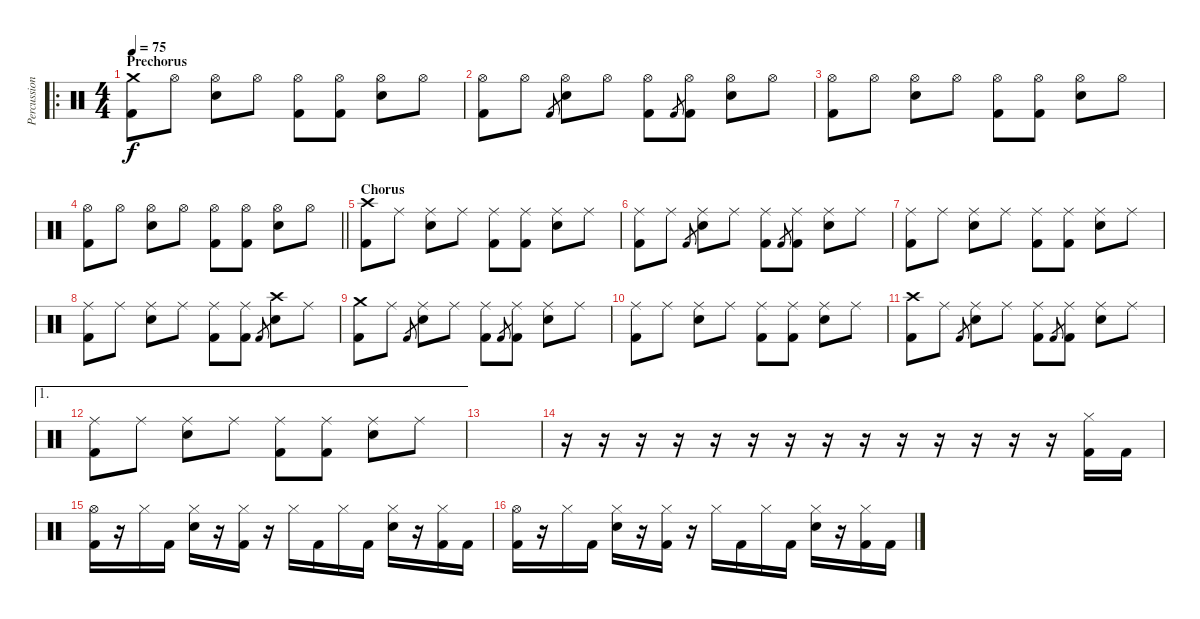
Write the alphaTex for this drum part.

\track ("Percussions" "Percussion") {instrument percussion}
\staff {score}
\articulation defaults
\ro
\ts (4 4)
\section ("" "Prechorus")
\tempo 75
\clef neutral
\ks c
("Crash medium (hit)" "Kick (hit) 2").8{dy f} "Hi-Hat (open)".8 ("Hi-Hat (open)" "Snare (hit) 2").8 "Hi-Hat (open)".8 ("Hi-Hat (open)" "Kick (hit) 2").8 ("Hi-Hat (open)" "Kick (hit) 2").8 ("Hi-Hat (open)" "Snare (hit) 2").8 "Hi-Hat (open)".8 |
("Hi-Hat (open)" "Kick (hit) 2").8 "Hi-Hat (open)".8 "Kick (hit) 2".8{gr} ("Hi-Hat (open)" "Snare (hit) 2").8 "Hi-Hat (open)".8 ("Hi-Hat (open)" "Kick (hit) 2").8 "Kick (hit) 2".8{gr} ("Hi-Hat (open)" "Kick (hit) 2").8 ("Hi-Hat (open)" "Snare (hit) 2").8 "Hi-Hat (open)".8 |
("Hi-Hat (open)" "Kick (hit) 2").8 "Hi-Hat (open)".8 ("Hi-Hat (open)" "Snare (hit) 2").8 "Hi-Hat (open)".8 ("Hi-Hat (open)" "Kick (hit) 2").8 ("Hi-Hat (open)" "Kick (hit) 2").8 ("Hi-Hat (open)" "Snare (hit) 2").8 "Hi-Hat (open)".8 |
\barLineRight lightlight
("Hi-Hat (open)" "Kick (hit) 2").8 "Hi-Hat (open)".8 ("Hi-Hat (open)" "Snare (hit) 2").8 "Hi-Hat (open)".8 ("Hi-Hat (open)" "Kick (hit) 2").8 ("Hi-Hat (open)" "Kick (hit) 2").8 ("Hi-Hat (open)" "Snare (hit) 2").8 "Hi-Hat (open)".8 |
\section ("" "Chorus")
("Crash high (hit)" "Kick (hit) 2").8 "Ride (middle)".8 ("Ride (middle)" "Snare (hit) 2").8 "Ride (middle)".8 ("Ride (middle)" "Kick (hit) 2").8 ("Ride (middle)" "Kick (hit) 2").8 ("Ride (middle)" "Snare (hit) 2").8 "Ride (middle)".8 |
("Ride (middle)" "Kick (hit) 2").8 "Ride (middle)".8 "Kick (hit) 2".8{gr} ("Ride (middle)" "Snare (hit) 2").8 "Ride (middle)".8 ("Ride (middle)" "Kick (hit) 2").8 "Kick (hit) 2".8{gr} ("Ride (middle)" "Kick (hit) 2").8 ("Ride (middle)" "Snare (hit) 2").8 "Ride (middle)".8 |
("Ride (middle)" "Kick (hit) 2").8 "Ride (middle)".8 ("Ride (middle)" "Snare (hit) 2").8 "Ride (middle)".8 ("Ride (middle)" "Kick (hit) 2").8 ("Ride (middle)" "Kick (hit) 2").8 ("Ride (middle)" "Snare (hit) 2").8 "Ride (middle)".8 |
("Ride (middle)" "Kick (hit) 2").8 "Ride (middle)".8 ("Ride (middle)" "Snare (hit) 2").8 "Ride (middle)".8 ("Ride (middle)" "Kick (hit) 2").8 ("Ride (middle)" "Kick (hit) 2").8 "Kick (hit) 2".8{gr} ("Crash high (hit)" "Snare (hit) 2").8 "Ride (middle)".8 |
("Crash medium (hit)" "Kick (hit) 2").8 "Ride (middle)".8 "Kick (hit) 2".8{gr} ("Ride (middle)" "Snare (hit) 2").8 "Ride (middle)".8 ("Ride (middle)" "Kick (hit) 2").8 "Kick (hit) 2".8{gr} ("Ride (middle)" "Kick (hit) 2").8 ("Ride (middle)" "Snare (hit) 2").8 "Ride (middle)".8 |
("Ride (middle)" "Kick (hit) 2").8 "Ride (middle)".8 ("Ride (middle)" "Snare (hit) 2").8 "Ride (middle)".8 ("Ride (middle)" "Kick (hit) 2").8 ("Ride (middle)" "Kick (hit) 2").8 ("Ride (middle)" "Snare (hit) 2").8 "Ride (middle)".8 |
("Crash high (hit)" "Kick (hit) 2").8 "Ride (middle)".8 "Kick (hit) 2".8{gr} ("Ride (middle)" "Snare (hit) 2").8 "Ride (middle)".8 ("Ride (middle)" "Kick (hit) 2").8 "Kick (hit) 2".8{gr} ("Ride (middle)" "Kick (hit) 2").8 ("Ride (middle)" "Snare (hit) 2").8 "Ride (middle)".8 |
\ae 1
("Ride (middle)" "Kick (hit) 2").8 "Ride (middle)".8 ("Ride (middle)" "Snare (hit) 2").8 "Ride (middle)".8 ("Ride (middle)" "Kick (hit) 2").8 ("Ride (middle)" "Kick (hit) 2").8 ("Ride (middle)" "Snare (hit) 2").8 "Ride (middle)".8 |
|
r.16 r.16 r.16 r.16 r.16 r.16 r.16 r.16 r.16 r.16 r.16 r.16 r.16 r.16 ("Hi-Hat (closed)" "Kick (hit) 2").16 "Kick (hit) 2".16 |
("Hi-Hat (open)" "Kick (hit) 2").16 r.16 "Hi-Hat (closed)".16 "Kick (hit) 2".16 ("Hi-Hat (closed)" "Snare (hit) 2").16 r.16 ("Hi-Hat (closed)" "Kick (hit) 2").16 r.16 "Hi-Hat (closed)".16 "Kick (hit) 2".16 "Hi-Hat (closed)".16 "Kick (hit) 2".16 ("Hi-Hat (closed)" "Snare (hit) 2").16 r.16 ("Hi-Hat (closed)" "Kick (hit) 2").16 "Kick (hit) 2".16 |
("Hi-Hat (open)" "Kick (hit) 2").16 r.16 "Hi-Hat (closed)".16 "Kick (hit) 2".16 ("Hi-Hat (closed)" "Snare (hit) 2").16 r.16 ("Hi-Hat (closed)" "Kick (hit) 2").16 r.16 "Hi-Hat (closed)".16 "Kick (hit) 2".16 "Hi-Hat (closed)".16 "Kick (hit) 2".16 ("Hi-Hat (closed)" "Snare (hit) 2").16 r.16 ("Hi-Hat (closed)" "Kick (hit) 2").16 "Kick (hit) 2".16
